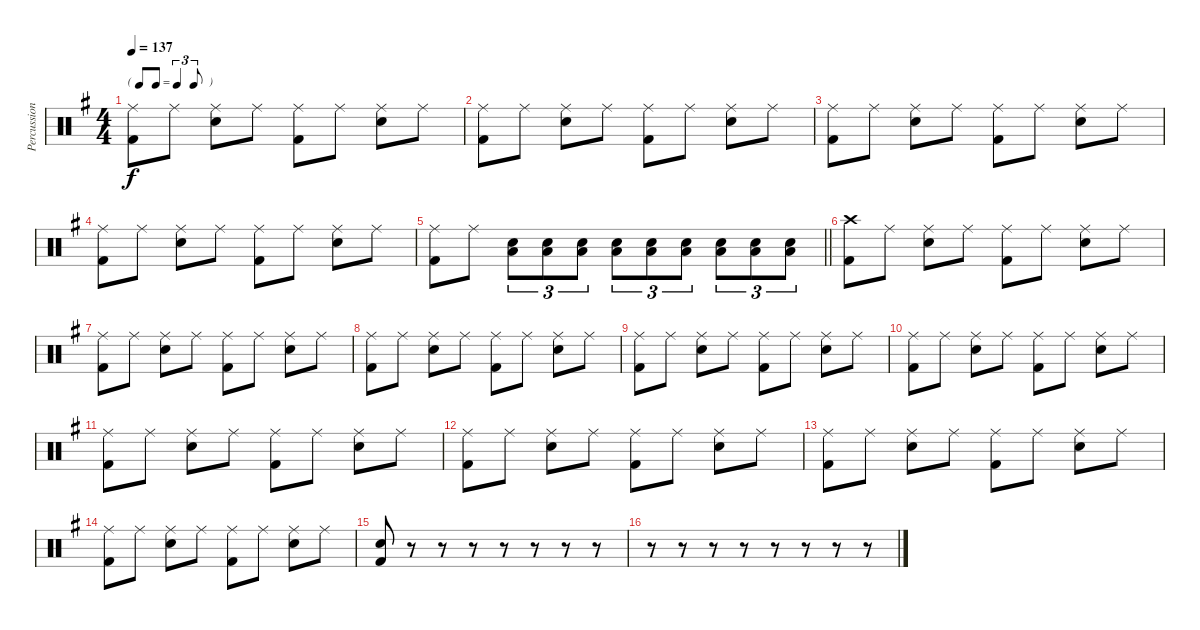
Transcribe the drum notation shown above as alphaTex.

\track ("Percussion" "Percussion") {instrument percussion}
\staff {score}
\articulation defaults
\ts (4 4)
\tf triplet8th
\tempo 137
\clef neutral
\ks g
("Ride (middle)" "Kick (hit) 2").8{dy f} "Ride (middle)".8 ("Ride (middle)" "Snare (hit) 2").8 "Ride (middle)".8 ("Ride (middle)" "Kick (hit) 2").8 "Ride (middle)".8 ("Ride (middle)" "Snare (hit) 2").8 "Ride (middle)".8 |
("Ride (middle)" "Kick (hit) 2").8 "Ride (middle)".8 ("Ride (middle)" "Snare (hit) 2").8 "Ride (middle)".8 ("Ride (middle)" "Kick (hit) 2").8 "Ride (middle)".8 ("Ride (middle)" "Snare (hit) 2").8 "Ride (middle)".8 |
("Ride (middle)" "Kick (hit) 2").8 "Ride (middle)".8 ("Ride (middle)" "Snare (hit) 2").8 "Ride (middle)".8 ("Ride (middle)" "Kick (hit) 2").8 "Ride (middle)".8 ("Ride (middle)" "Snare (hit) 2").8 "Ride (middle)".8 |
("Ride (middle)" "Kick (hit) 2").8 "Ride (middle)".8 ("Ride (middle)" "Snare (hit) 2").8 "Ride (middle)".8 ("Ride (middle)" "Kick (hit) 2").8 "Ride (middle)".8 ("Ride (middle)" "Snare (hit) 2").8 "Ride (middle)".8 |
\barLineRight lightlight
("Ride (middle)" "Kick (hit) 2").8 "Ride (middle)".8 ("Snare (hit) 2" "Low Floor Tom (hit)").8{tu (3 2)} ("Snare (hit) 2" "Low Floor Tom (hit)").8{tu (3 2)} ("Snare (hit) 2" "Low Floor Tom (hit)").8{tu (3 2)} ("Snare (hit) 2" "Low Floor Tom (hit)").8{tu (3 2)} ("Snare (hit) 2" "Low Floor Tom (hit)").8{tu (3 2)} ("Snare (hit) 2" "Low Floor Tom (hit)").8{tu (3 2)} ("Snare (hit) 2" "Low Floor Tom (hit)").8{tu (3 2)} ("Snare (hit) 2" "Low Floor Tom (hit)").8{tu (3 2)} ("Snare (hit) 2" "Low Floor Tom (hit)").8{tu (3 2)} |
("Crash high (hit)" "Kick (hit) 2").8 "Ride (middle)".8 ("Ride (middle)" "Snare (hit) 2").8 "Ride (middle)".8 ("Ride (middle)" "Kick (hit) 2").8 "Ride (middle)".8 ("Ride (middle)" "Snare (hit) 2").8 "Ride (middle)".8 |
("Ride (middle)" "Kick (hit) 2").8 "Ride (middle)".8 ("Ride (middle)" "Snare (hit) 2").8 "Ride (middle)".8 ("Ride (middle)" "Kick (hit) 2").8 "Ride (middle)".8 ("Ride (middle)" "Snare (hit) 2").8 "Ride (middle)".8 |
("Ride (middle)" "Kick (hit) 2").8 "Ride (middle)".8 ("Ride (middle)" "Snare (hit) 2").8 "Ride (middle)".8 ("Ride (middle)" "Kick (hit) 2").8 "Ride (middle)".8 ("Ride (middle)" "Snare (hit) 2").8 "Ride (middle)".8 |
("Ride (middle)" "Kick (hit) 2").8 "Ride (middle)".8 ("Ride (middle)" "Snare (hit) 2").8 "Ride (middle)".8 ("Ride (middle)" "Kick (hit) 2").8 "Ride (middle)".8 ("Ride (middle)" "Snare (hit) 2").8 "Ride (middle)".8 |
("Ride (middle)" "Kick (hit) 2").8 "Ride (middle)".8 ("Ride (middle)" "Snare (hit) 2").8 "Ride (middle)".8 ("Ride (middle)" "Kick (hit) 2").8 "Ride (middle)".8 ("Ride (middle)" "Snare (hit) 2").8 "Ride (middle)".8 |
("Ride (middle)" "Kick (hit) 2").8 "Ride (middle)".8 ("Ride (middle)" "Snare (hit) 2").8 "Ride (middle)".8 ("Ride (middle)" "Kick (hit) 2").8 "Ride (middle)".8 ("Ride (middle)" "Snare (hit) 2").8 "Ride (middle)".8 |
("Ride (middle)" "Kick (hit) 2").8 "Ride (middle)".8 ("Ride (middle)" "Snare (hit) 2").8 "Ride (middle)".8 ("Ride (middle)" "Kick (hit) 2").8 "Ride (middle)".8 ("Ride (middle)" "Snare (hit) 2").8 "Ride (middle)".8 |
("Ride (middle)" "Kick (hit) 2").8 "Ride (middle)".8 ("Ride (middle)" "Snare (hit) 2").8 "Ride (middle)".8 ("Ride (middle)" "Kick (hit) 2").8 "Ride (middle)".8 ("Ride (middle)" "Snare (hit) 2").8 "Ride (middle)".8 |
("Ride (middle)" "Kick (hit) 2").8 "Ride (middle)".8 ("Ride (middle)" "Snare (hit) 2").8 "Ride (middle)".8 ("Ride (middle)" "Kick (hit) 2").8 "Ride (middle)".8 ("Ride (middle)" "Snare (hit) 2").8 "Ride (middle)".8 |
("Snare (hit) 2" "Kick (hit) 2").8 r.8 r.8 r.8 r.8 r.8 r.8 r.8 |
r.8 r.8 r.8 r.8 r.8 r.8 r.8 r.8
